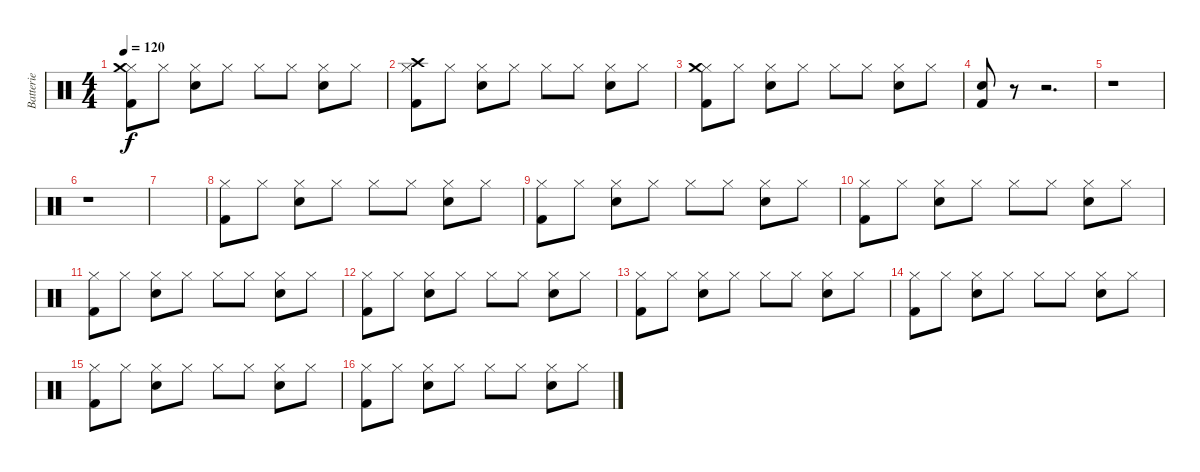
\track ("Batterie" "Batterie") {instrument percussion}
\staff {score}
\articulation defaults
\ts (4 4)
\tempo 120
\clef neutral
\ks c
("Hi-Hat (closed)" "Crash medium (hit)" "Kick (hit) 2").8{dy f} "Hi-Hat (closed)".8 ("Hi-Hat (closed)" "Electric Snare (hit)").8 "Hi-Hat (closed)".8 "Hi-Hat (closed)".8 "Hi-Hat (closed)".8 ("Hi-Hat (closed)" "Electric Snare (hit)").8 "Hi-Hat (closed)".8 |
("Hi-Hat (closed)" "Crash high (hit)" "Kick (hit) 2").8 "Hi-Hat (closed)".8 ("Hi-Hat (closed)" "Electric Snare (hit)").8 "Hi-Hat (closed)".8 "Hi-Hat (closed)".8 "Hi-Hat (closed)".8 ("Hi-Hat (closed)" "Electric Snare (hit)").8 "Hi-Hat (closed)".8 |
("Hi-Hat (closed)" "Crash medium (hit)" "Kick (hit) 2").8 "Hi-Hat (closed)".8 ("Hi-Hat (closed)" "Electric Snare (hit)").8 "Hi-Hat (closed)".8 "Hi-Hat (closed)".8 "Hi-Hat (closed)".8 ("Hi-Hat (closed)" "Electric Snare (hit)").8 "Hi-Hat (closed)".8 |
("Electric Snare (hit)" "Kick (hit) 2").8 r.8 r.2{d} |
r.1 |
r.1 |
|
("Hi-Hat (closed)" "Kick (hit) 2").8 "Hi-Hat (closed)".8 ("Hi-Hat (closed)" "Electric Snare (hit)").8 "Hi-Hat (closed)".8 "Hi-Hat (closed)".8 "Hi-Hat (closed)".8 ("Hi-Hat (closed)" "Electric Snare (hit)").8 "Hi-Hat (closed)".8 |
("Hi-Hat (closed)" "Kick (hit) 2").8 "Hi-Hat (closed)".8 ("Hi-Hat (closed)" "Electric Snare (hit)").8 "Hi-Hat (closed)".8 "Hi-Hat (closed)".8 "Hi-Hat (closed)".8 ("Hi-Hat (closed)" "Electric Snare (hit)").8 "Hi-Hat (closed)".8 |
("Hi-Hat (closed)" "Kick (hit) 2").8 "Hi-Hat (closed)".8 ("Hi-Hat (closed)" "Electric Snare (hit)").8 "Hi-Hat (closed)".8 "Hi-Hat (closed)".8 "Hi-Hat (closed)".8 ("Hi-Hat (closed)" "Electric Snare (hit)").8 "Hi-Hat (closed)".8 |
("Hi-Hat (closed)" "Kick (hit) 2").8 "Hi-Hat (closed)".8 ("Hi-Hat (closed)" "Electric Snare (hit)").8 "Hi-Hat (closed)".8 "Hi-Hat (closed)".8 "Hi-Hat (closed)".8 ("Hi-Hat (closed)" "Electric Snare (hit)").8 "Hi-Hat (closed)".8 |
("Hi-Hat (closed)" "Kick (hit) 2").8 "Hi-Hat (closed)".8 ("Hi-Hat (closed)" "Electric Snare (hit)").8 "Hi-Hat (closed)".8 "Hi-Hat (closed)".8 "Hi-Hat (closed)".8 ("Hi-Hat (closed)" "Electric Snare (hit)").8 "Hi-Hat (closed)".8 |
("Hi-Hat (closed)" "Kick (hit) 2").8 "Hi-Hat (closed)".8 ("Hi-Hat (closed)" "Electric Snare (hit)").8 "Hi-Hat (closed)".8 "Hi-Hat (closed)".8 "Hi-Hat (closed)".8 ("Hi-Hat (closed)" "Electric Snare (hit)").8 "Hi-Hat (closed)".8 |
("Hi-Hat (closed)" "Kick (hit) 2").8 "Hi-Hat (closed)".8 ("Hi-Hat (closed)" "Electric Snare (hit)").8 "Hi-Hat (closed)".8 "Hi-Hat (closed)".8 "Hi-Hat (closed)".8 ("Hi-Hat (closed)" "Electric Snare (hit)").8 "Hi-Hat (closed)".8 |
("Hi-Hat (closed)" "Kick (hit) 2").8 "Hi-Hat (closed)".8 ("Hi-Hat (closed)" "Electric Snare (hit)").8 "Hi-Hat (closed)".8 "Hi-Hat (closed)".8 "Hi-Hat (closed)".8 ("Hi-Hat (closed)" "Electric Snare (hit)").8 "Hi-Hat (closed)".8 |
("Hi-Hat (closed)" "Kick (hit) 2").8 "Hi-Hat (closed)".8 ("Hi-Hat (closed)" "Electric Snare (hit)").8 "Hi-Hat (closed)".8 "Hi-Hat (closed)".8 "Hi-Hat (closed)".8 ("Hi-Hat (closed)" "Electric Snare (hit)").8 "Hi-Hat (closed)".8
